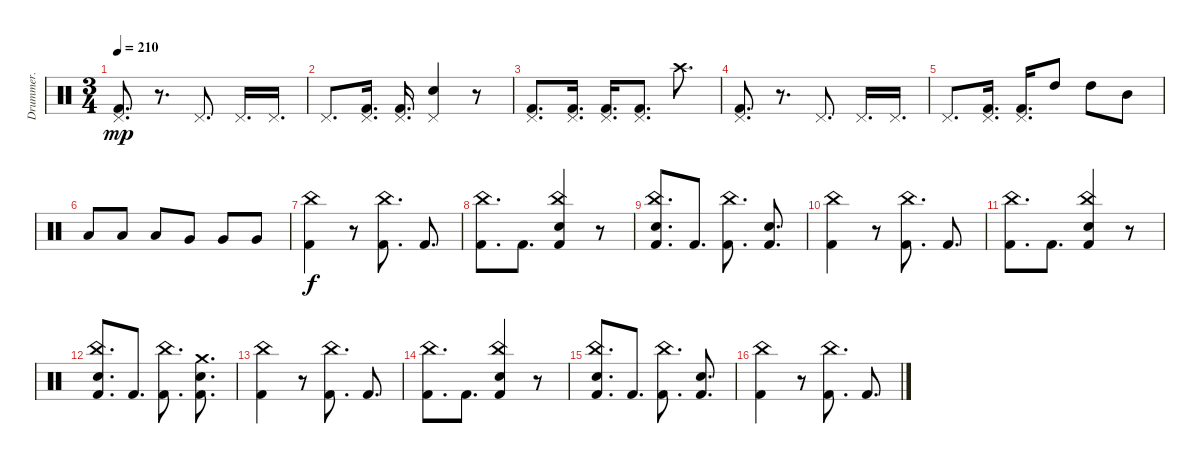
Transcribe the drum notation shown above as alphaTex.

\track ("Drummer." "Drummer.") {instrument percussion}
\staff {score}
\articulation defaults
\ts (3 4)
\tempo 210
\clef neutral
\ks c
("Pedal Hi-Hat (hit)" "Kick (hit) 2").8{d dy mp} r.8{d} "Pedal Hi-Hat (hit)".8{d} "Pedal Hi-Hat (hit)".16{d} "Pedal Hi-Hat (hit)".16{d} |
"Pedal Hi-Hat (hit)".8{d} ("Pedal Hi-Hat (hit)" "Kick (hit) 2").16{d} ("Pedal Hi-Hat (hit)" "Kick (hit) 2").16{d} ("Pedal Hi-Hat (hit)" "Electric Snare (hit)").4 r.8 |
("Pedal Hi-Hat (hit)" "Kick (hit) 2").8{d} ("Pedal Hi-Hat (hit)" "Kick (hit) 2").16{d} ("Pedal Hi-Hat (hit)" "Kick (hit) 2").16{d} ("Pedal Hi-Hat (hit)" "Kick (hit) 2").8{d} "Crash high (hit)".8{d} |
("Pedal Hi-Hat (hit)" "Kick (hit) 2").8{d} r.8{d} "Pedal Hi-Hat (hit)".8{d} "Pedal Hi-Hat (hit)".16{d} "Pedal Hi-Hat (hit)".16{d} |
"Pedal Hi-Hat (hit)".8{d} ("Pedal Hi-Hat (hit)" "Kick (hit) 2").16{d} ("Pedal Hi-Hat (hit)" "Kick (hit) 2").16{d} "High Tom (hit)".8 "High Tom (hit)".8 "Mid Tom (hit)".8 |
"Low Tom (hit)".8 "Low Tom (hit)".8 "Low Tom (hit)".8 "Very Low Tom (hit)".8 "Very Low Tom (hit)".8 "Very Low Tom (hit)".8 |
("China (hit)" "Kick (hit) 2").4{dy f} r.8 ("China (hit)" "Kick (hit) 2").8{d} "Kick (hit) 2".8{d} |
("China (hit)" "Kick (hit) 2").8{d} "Kick (hit) 2".8{d} ("China (hit)" "Snare (hit) 2" "Kick (hit) 2").4 r.8 |
("Snare (hit)" "China (hit)" "Kick (hit) 2").8{d} "Kick (hit) 2".8{d} ("China (hit)" "Kick (hit) 2").8{d} ("Snare (hit) 2" "Kick (hit) 2").8{d} |
("China (hit)" "Kick (hit) 2").4 r.8 ("China (hit)" "Kick (hit) 2").8{d} "Kick (hit) 2".8{d} |
("China (hit)" "Kick (hit) 2").8{d} "Kick (hit) 2".8{d} ("China (hit)" "Snare (hit) 2" "Kick (hit) 2").4 r.8 |
("Snare (hit)" "China (hit)" "Kick (hit) 2").8{d} "Kick (hit) 2".8{d} ("China (hit)" "Kick (hit) 2").8{d} ("Crash medium (hit)" "Snare (hit) 2" "Kick (hit) 2").8{d} |
("China (hit)" "Kick (hit) 2").4 r.8 ("China (hit)" "Kick (hit) 2").8{d} "Kick (hit) 2".8{d} |
("China (hit)" "Kick (hit) 2").8{d} "Kick (hit) 2".8{d} ("China (hit)" "Snare (hit) 2" "Kick (hit) 2").4 r.8 |
("Snare (hit)" "China (hit)" "Kick (hit) 2").8{d} "Kick (hit) 2".8{d} ("China (hit)" "Kick (hit) 2").8{d} ("Snare (hit) 2" "Kick (hit) 2").8{d} |
("China (hit)" "Kick (hit) 2").4 r.8 ("China (hit)" "Kick (hit) 2").8{d} "Kick (hit) 2".8{d}
